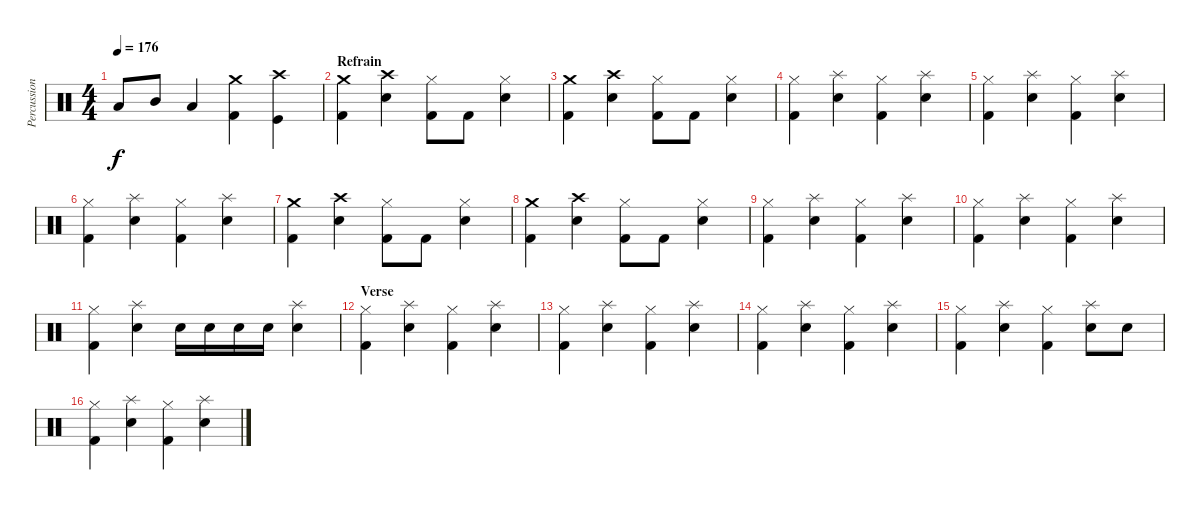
\track ("Percussion" "Percussion") {instrument percussion}
\staff {score}
\articulation defaults
\ts (4 4)
\tempo 176
\clef neutral
\ks c "Low Tom (hit)".8{dy f} "Mid Tom (hit)".8 "Low Tom (hit)".4
("Crash medium (hit)" "Kick (hit) 2").4 ("Crash high (hit)" "Kick (hit)").4 |
\section ("" "Refrain")
("Crash medium (hit)" "Kick (hit) 2").4 ("Crash high (hit)" "Snare (hit) 2").4 ("Hi-Hat (closed)" "Kick (hit) 2").8 "Kick (hit) 2".8 ("Hi-Hat (closed)" "Snare (hit) 2").4 |
("Crash medium (hit)" "Kick (hit) 2").4 ("Crash high (hit)" "Snare (hit) 2").4 ("Hi-Hat (closed)" "Kick (hit) 2").8 "Kick (hit) 2".8 ("Hi-Hat (closed)" "Snare (hit) 2").4 |
("Hi-Hat (closed)" "Kick (hit) 2").4 ("Splash (hit)" "Snare (hit) 2").4 ("Hi-Hat (closed)" "Kick (hit) 2").4 ("Splash (hit)" "Snare (hit) 2").4 |
("Hi-Hat (closed)" "Kick (hit) 2").4 ("Splash (hit)" "Snare (hit) 2").4 ("Hi-Hat (closed)" "Kick (hit) 2").4 ("Splash (hit)" "Snare (hit) 2").4 |
("Hi-Hat (closed)" "Kick (hit) 2").4 ("Splash (hit)" "Snare (hit) 2").4 ("Hi-Hat (closed)" "Kick (hit) 2").4 ("Splash (hit)" "Snare (hit) 2").4 |
("Crash medium (hit)" "Kick (hit) 2").4 ("Crash high (hit)" "Snare (hit) 2").4 ("Hi-Hat (closed)" "Kick (hit) 2").8 "Kick (hit) 2".8 ("Hi-Hat (closed)" "Snare (hit) 2").4 |
("Crash medium (hit)" "Kick (hit) 2").4 ("Crash high (hit)" "Snare (hit) 2").4 ("Hi-Hat (closed)" "Kick (hit) 2").8 "Kick (hit) 2".8 ("Hi-Hat (closed)" "Snare (hit) 2").4 |
("Hi-Hat (closed)" "Kick (hit) 2").4 ("Splash (hit)" "Snare (hit) 2").4 ("Hi-Hat (closed)" "Kick (hit) 2").4 ("Splash (hit)" "Snare (hit) 2").4 |
("Hi-Hat (closed)" "Kick (hit) 2").4 ("Splash (hit)" "Snare (hit) 2").4 ("Hi-Hat (closed)" "Kick (hit) 2").4 ("Splash (hit)" "Snare (hit) 2").4 |
("Hi-Hat (closed)" "Kick (hit) 2").4 ("Splash (hit)" "Snare (hit) 2").4 "Snare (hit) 2".16 "Snare (hit) 2".16 "Snare (hit) 2".16 "Snare (hit) 2".16 ("Splash (hit)" "Snare (hit) 2").4 |
\section ("" "Verse")
("Hi-Hat (closed)" "Kick (hit) 2").4 ("Splash (hit)" "Snare (hit) 2").4 ("Hi-Hat (closed)" "Kick (hit) 2").4 ("Splash (hit)" "Snare (hit) 2").4 |
("Hi-Hat (closed)" "Kick (hit) 2").4 ("Splash (hit)" "Snare (hit) 2").4 ("Hi-Hat (closed)" "Kick (hit) 2").4 ("Splash (hit)" "Snare (hit) 2").4 |
("Hi-Hat (closed)" "Kick (hit) 2").4 ("Splash (hit)" "Snare (hit) 2").4 ("Hi-Hat (closed)" "Kick (hit) 2").4 ("Splash (hit)" "Snare (hit) 2").4 |
("Hi-Hat (closed)" "Kick (hit) 2").4 ("Splash (hit)" "Snare (hit) 2").4 ("Hi-Hat (closed)" "Kick (hit) 2").4 ("Splash (hit)" "Snare (hit) 2").8 "Snare (hit) 2".8 |
("Hi-Hat (closed)" "Kick (hit) 2").4 ("Splash (hit)" "Snare (hit) 2").4 ("Hi-Hat (closed)" "Kick (hit) 2").4 ("Splash (hit)" "Snare (hit) 2").4
